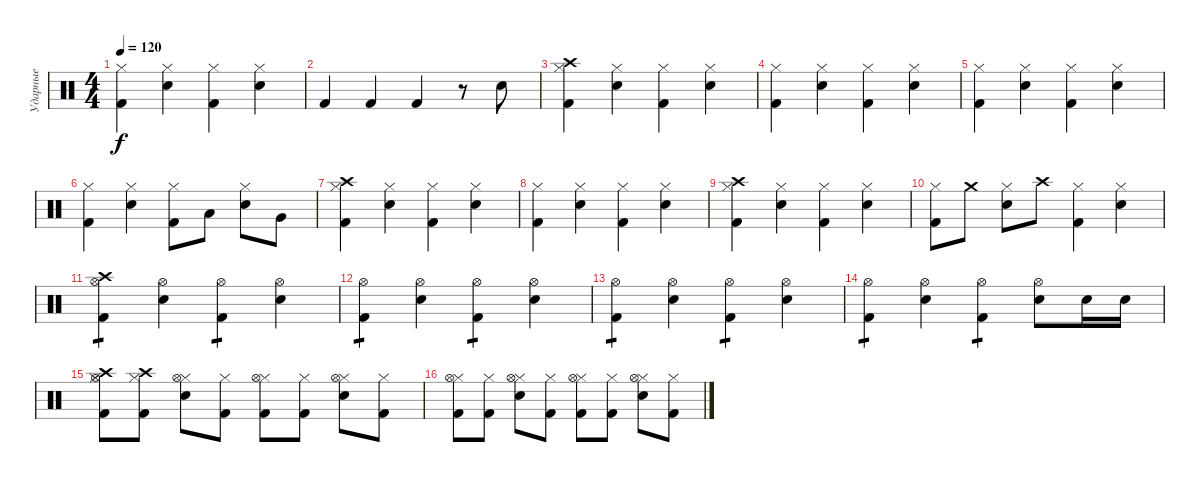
\track ("Ударные" "Ударные") {instrument percussion}
\staff {score}
\articulation defaults
\ts (4 4)
\tempo 120
\clef neutral
\ks c
("Hi-Hat (closed)" "Kick (hit) 2").4{dy f} ("Hi-Hat (closed)" "Electric Snare (hit)").4 ("Hi-Hat (closed)" "Kick (hit) 2").4 ("Hi-Hat (closed)" "Electric Snare (hit)").4 |
"Kick (hit) 2".4 "Kick (hit) 2".4 "Kick (hit) 2".4 r.8 "Electric Snare (hit)".8 |
("Hi-Hat (closed)" "Crash high (hit)" "Kick (hit) 2").4 ("Hi-Hat (closed)" "Electric Snare (hit)").4 ("Hi-Hat (closed)" "Kick (hit) 2").4 ("Hi-Hat (closed)" "Electric Snare (hit)").4 |
("Hi-Hat (closed)" "Kick (hit) 2").4 ("Hi-Hat (closed)" "Electric Snare (hit)").4 ("Hi-Hat (closed)" "Kick (hit) 2").4 ("Hi-Hat (closed)" "Electric Snare (hit)").4 |
("Hi-Hat (closed)" "Kick (hit) 2").4 ("Hi-Hat (closed)" "Electric Snare (hit)").4 ("Hi-Hat (closed)" "Kick (hit) 2").4 ("Hi-Hat (closed)" "Electric Snare (hit)").4 |
("Hi-Hat (closed)" "Kick (hit) 2").4 ("Hi-Hat (closed)" "Electric Snare (hit)").4 ("Hi-Hat (closed)" "Kick (hit) 2").8 "Low Tom (hit)".8 ("Electric Snare (hit)" "Hi-Hat (closed)").8 "Very Low Tom (hit)".8 |
("Hi-Hat (closed)" "Crash high (hit)" "Kick (hit) 2").4 ("Hi-Hat (closed)" "Electric Snare (hit)").4 ("Hi-Hat (closed)" "Kick (hit) 2").4 ("Hi-Hat (closed)" "Electric Snare (hit)").4 |
("Hi-Hat (closed)" "Kick (hit) 2").4 ("Hi-Hat (closed)" "Electric Snare (hit)").4 ("Hi-Hat (closed)" "Kick (hit) 2").4 ("Hi-Hat (closed)" "Electric Snare (hit)").4 |
("Hi-Hat (closed)" "Kick (hit) 2" "Crash high (hit)").4 ("Hi-Hat (closed)" "Electric Snare (hit)").4 ("Hi-Hat (closed)" "Kick (hit) 2").4 ("Hi-Hat (closed)" "Electric Snare (hit)").4 |
("Hi-Hat (closed)" "Kick (hit) 2").8 "Crash medium (hit)".8 ("Electric Snare (hit)" "Hi-Hat (closed)").8 "Crash high (hit)".8 ("Hi-Hat (closed)" "Kick (hit) 2").4 ("Hi-Hat (closed)" "Electric Snare (hit)").4 |
("Kick (hit) 2" "Hi-Hat (open)" "Crash high (hit)").4{tp 1} ("Electric Snare (hit)" "Hi-Hat (open)").4 ("Kick (hit) 2" "Hi-Hat (open)").4{tp 1} ("Electric Snare (hit)" "Hi-Hat (open)").4 |
("Kick (hit) 2" "Hi-Hat (open)").4{tp 1} ("Electric Snare (hit)" "Hi-Hat (open)").4 ("Kick (hit) 2" "Hi-Hat (open)").4{tp 1} ("Electric Snare (hit)" "Hi-Hat (open)").4 |
("Kick (hit) 2" "Hi-Hat (open)").4{tp 1} ("Electric Snare (hit)" "Hi-Hat (open)").4 ("Kick (hit) 2" "Hi-Hat (open)").4{tp 1} ("Electric Snare (hit)" "Hi-Hat (open)").4 |
("Kick (hit) 2" "Hi-Hat (open)").4{tp 1} ("Electric Snare (hit)" "Hi-Hat (open)").4 ("Kick (hit) 2" "Hi-Hat (open)").4{tp 1} ("Electric Snare (hit)" "Hi-Hat (open)").8 "Electric Snare (hit)".16 "Electric Snare (hit)".16 |
("Kick (hit) 2" "Hi-Hat (closed)" "Crash high (hit)" "Hi-Hat (open)").8 ("Kick (hit) 2" "Hi-Hat (closed)" "Crash high (hit)").8 ("Electric Snare (hit)" "Hi-Hat (closed)" "Hi-Hat (open)").8 ("Kick (hit) 2" "Hi-Hat (closed)").8 ("Kick (hit) 2" "Hi-Hat (closed)" "Hi-Hat (open)").8 ("Kick (hit) 2" "Hi-Hat (closed)").8 ("Electric Snare (hit)" "Hi-Hat (closed)" "Hi-Hat (open)").8 ("Kick (hit) 2" "Hi-Hat (closed)").8 |
("Kick (hit) 2" "Hi-Hat (closed)" "Hi-Hat (open)").8 ("Kick (hit) 2" "Hi-Hat (closed)").8 ("Electric Snare (hit)" "Hi-Hat (closed)" "Hi-Hat (open)").8 ("Kick (hit) 2" "Hi-Hat (closed)").8 ("Kick (hit) 2" "Hi-Hat (closed)" "Hi-Hat (open)").8 ("Kick (hit) 2" "Hi-Hat (closed)").8 ("Electric Snare (hit)" "Hi-Hat (closed)" "Hi-Hat (open)").8 ("Kick (hit) 2" "Hi-Hat (closed)").8
